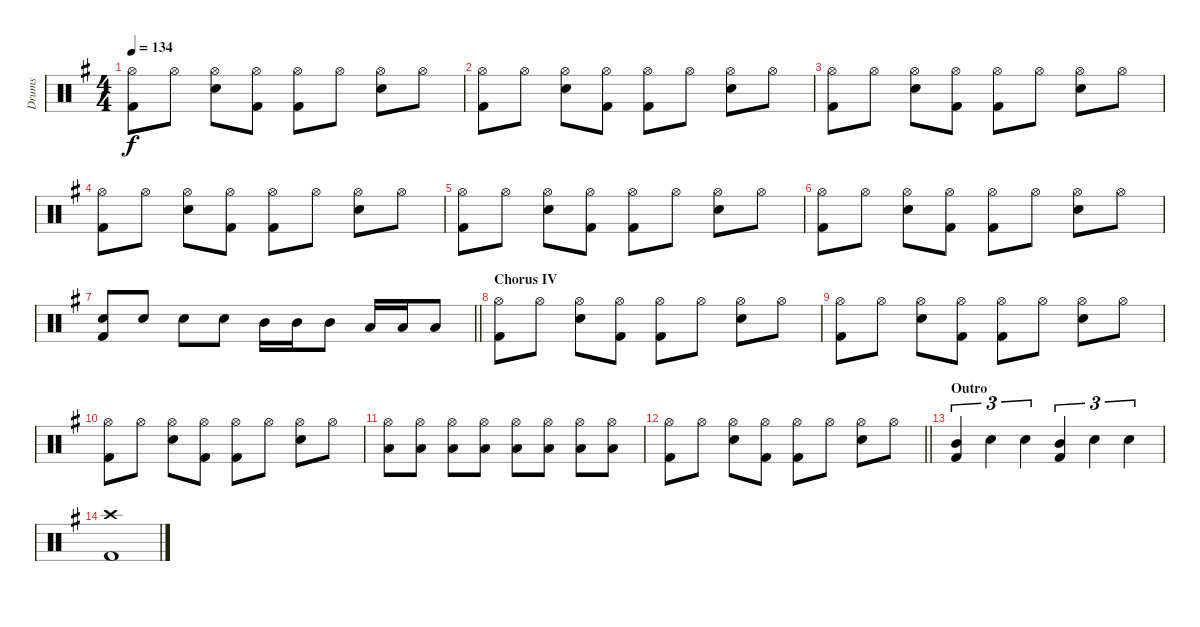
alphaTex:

\track ("Drums" "Drums") {instrument percussion}
\staff {score}
\articulation defaults
\ts (4 4)
\tempo 134
\clef neutral
\ks g
("Hi-Hat (open)" "Kick (hit) 2").8{dy f} "Hi-Hat (open)".8 ("Hi-Hat (open)" "Snare (hit) 2").8 ("Hi-Hat (open)" "Kick (hit) 2").8 ("Hi-Hat (open)" "Kick (hit) 2").8 "Hi-Hat (open)".8 ("Hi-Hat (open)" "Snare (hit) 2").8 "Hi-Hat (open)".8 |
("Hi-Hat (open)" "Kick (hit) 2").8 "Hi-Hat (open)".8 ("Hi-Hat (open)" "Snare (hit) 2").8 ("Hi-Hat (open)" "Kick (hit) 2").8 ("Hi-Hat (open)" "Kick (hit) 2").8 "Hi-Hat (open)".8 ("Hi-Hat (open)" "Snare (hit) 2").8 "Hi-Hat (open)".8 |
("Hi-Hat (open)" "Kick (hit) 2").8 "Hi-Hat (open)".8 ("Hi-Hat (open)" "Snare (hit) 2").8 ("Hi-Hat (open)" "Kick (hit) 2").8 ("Hi-Hat (open)" "Kick (hit) 2").8 "Hi-Hat (open)".8 ("Hi-Hat (open)" "Snare (hit) 2").8 "Hi-Hat (open)".8 |
("Hi-Hat (open)" "Kick (hit) 2").8 "Hi-Hat (open)".8 ("Hi-Hat (open)" "Snare (hit) 2").8 ("Hi-Hat (open)" "Kick (hit) 2").8 ("Hi-Hat (open)" "Kick (hit) 2").8 "Hi-Hat (open)".8 ("Hi-Hat (open)" "Snare (hit) 2").8 "Hi-Hat (open)".8 |
("Hi-Hat (open)" "Kick (hit) 2").8 "Hi-Hat (open)".8 ("Hi-Hat (open)" "Snare (hit) 2").8 ("Hi-Hat (open)" "Kick (hit) 2").8 ("Hi-Hat (open)" "Kick (hit) 2").8 "Hi-Hat (open)".8 ("Hi-Hat (open)" "Snare (hit) 2").8 "Hi-Hat (open)".8 |
("Hi-Hat (open)" "Kick (hit) 2").8 "Hi-Hat (open)".8 ("Hi-Hat (open)" "Snare (hit) 2").8 ("Hi-Hat (open)" "Kick (hit) 2").8 ("Hi-Hat (open)" "Kick (hit) 2").8 "Hi-Hat (open)".8 ("Hi-Hat (open)" "Snare (hit) 2").8 "Hi-Hat (open)".8 |
\barLineRight lightlight
("Snare (hit) 2" "Kick (hit) 2").8 "Snare (hit) 2".8 "Snare (hit) 2".8 "Snare (hit) 2".8 "Mid Tom (hit)".16 "Mid Tom (hit)".16 "Mid Tom (hit)".8 "Low Tom (hit)".16 "Low Tom (hit)".16 "Low Tom (hit)".8 |
\section ("" "Chorus IV")
("Hi-Hat (open)" "Kick (hit) 2").8 "Hi-Hat (open)".8 ("Hi-Hat (open)" "Snare (hit) 2").8 ("Hi-Hat (open)" "Kick (hit) 2").8 ("Hi-Hat (open)" "Kick (hit) 2").8 "Hi-Hat (open)".8 ("Hi-Hat (open)" "Snare (hit) 2").8 "Hi-Hat (open)".8 |
("Hi-Hat (open)" "Kick (hit) 2").8 "Hi-Hat (open)".8 ("Hi-Hat (open)" "Snare (hit) 2").8 ("Hi-Hat (open)" "Kick (hit) 2").8 ("Hi-Hat (open)" "Kick (hit) 2").8 "Hi-Hat (open)".8 ("Hi-Hat (open)" "Snare (hit) 2").8 "Hi-Hat (open)".8 |
("Hi-Hat (open)" "Kick (hit) 2").8 "Hi-Hat (open)".8 ("Hi-Hat (open)" "Snare (hit) 2").8 ("Hi-Hat (open)" "Kick (hit) 2").8 ("Hi-Hat (open)" "Kick (hit) 2").8 "Hi-Hat (open)".8 ("Hi-Hat (open)" "Snare (hit) 2").8 "Hi-Hat (open)".8 |
("Hi-Hat (open)" "Low Floor Tom (hit)").8 ("Hi-Hat (open)" "Low Floor Tom (hit)").8 ("Hi-Hat (open)" "Low Floor Tom (hit)").8 ("Hi-Hat (open)" "Low Floor Tom (hit)").8 ("Hi-Hat (open)" "Low Floor Tom (hit)").8 ("Hi-Hat (open)" "Low Floor Tom (hit)").8 ("Hi-Hat (open)" "Low Floor Tom (hit)").8 ("Hi-Hat (open)" "Low Floor Tom (hit)").8 |
\barLineRight lightlight
("Hi-Hat (open)" "Kick (hit) 2").8 "Hi-Hat (open)".8 ("Hi-Hat (open)" "Snare (hit) 2").8 ("Hi-Hat (open)" "Kick (hit) 2").8 ("Hi-Hat (open)" "Kick (hit) 2").8 "Hi-Hat (open)".8 ("Hi-Hat (open)" "Snare (hit) 2").8 "Hi-Hat (open)".8 |
\section ("" "Outro")
("Mid Tom (hit)" "Kick (hit) 2").4{tu (3 2)} "Snare (hit) 2".4{tu (3 2)} "Snare (hit) 2".4{tu (3 2)} ("Mid Tom (hit)" "Kick (hit) 2").4{tu (3 2)} "Snare (hit) 2".4{tu (3 2)} "Snare (hit) 2".4{tu (3 2)} |
("Crash high (hit)" "Kick (hit) 2").1
